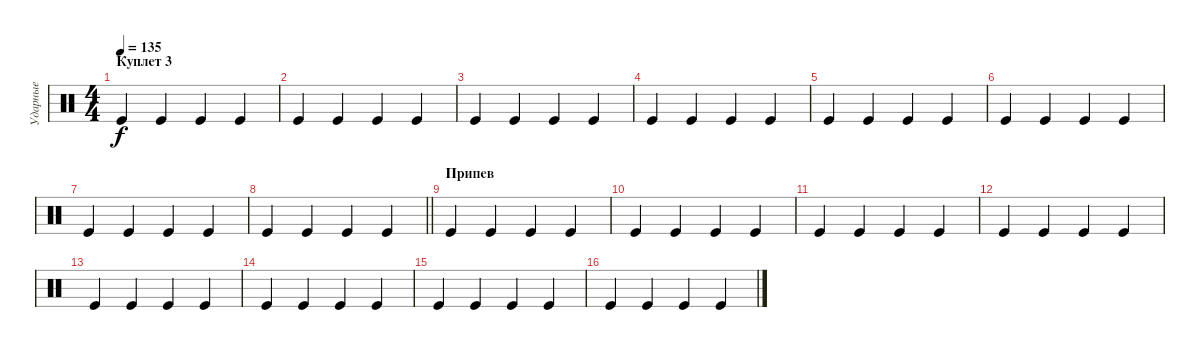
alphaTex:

\track ("Ударные" "Ударные") {instrument percussion}
\staff {score}
\articulation defaults
\ts (4 4)
\section ("" "Куплет 3")
\tempo 135
\clef neutral
\ks c "Kick (hit)".4{dy f} "Kick (hit)".4 "Kick (hit)".4 "Kick (hit)".4
|
"Kick (hit)".4 "Kick (hit)".4 "Kick (hit)".4 "Kick (hit)".4 |
"Kick (hit)".4 "Kick (hit)".4 "Kick (hit)".4 "Kick (hit)".4 |
"Kick (hit)".4 "Kick (hit)".4 "Kick (hit)".4 "Kick (hit)".4 |
"Kick (hit)".4 "Kick (hit)".4 "Kick (hit)".4 "Kick (hit)".4 |
"Kick (hit)".4 "Kick (hit)".4 "Kick (hit)".4 "Kick (hit)".4 |
"Kick (hit)".4 "Kick (hit)".4 "Kick (hit)".4 "Kick (hit)".4 |
\barLineRight lightlight "Kick (hit)".4 "Kick (hit)".4 "Kick (hit)".4 "Kick (hit)".4
|
\section ("" "Припев")
"Kick (hit)".4 "Kick (hit)".4 "Kick (hit)".4 "Kick (hit)".4 |
"Kick (hit)".4 "Kick (hit)".4 "Kick (hit)".4 "Kick (hit)".4 |
"Kick (hit)".4 "Kick (hit)".4 "Kick (hit)".4 "Kick (hit)".4 |
"Kick (hit)".4 "Kick (hit)".4 "Kick (hit)".4 "Kick (hit)".4 |
"Kick (hit)".4 "Kick (hit)".4 "Kick (hit)".4 "Kick (hit)".4 |
"Kick (hit)".4 "Kick (hit)".4 "Kick (hit)".4 "Kick (hit)".4 |
"Kick (hit)".4 "Kick (hit)".4 "Kick (hit)".4 "Kick (hit)".4 |
"Kick (hit)".4 "Kick (hit)".4 "Kick (hit)".4 "Kick (hit)".4
